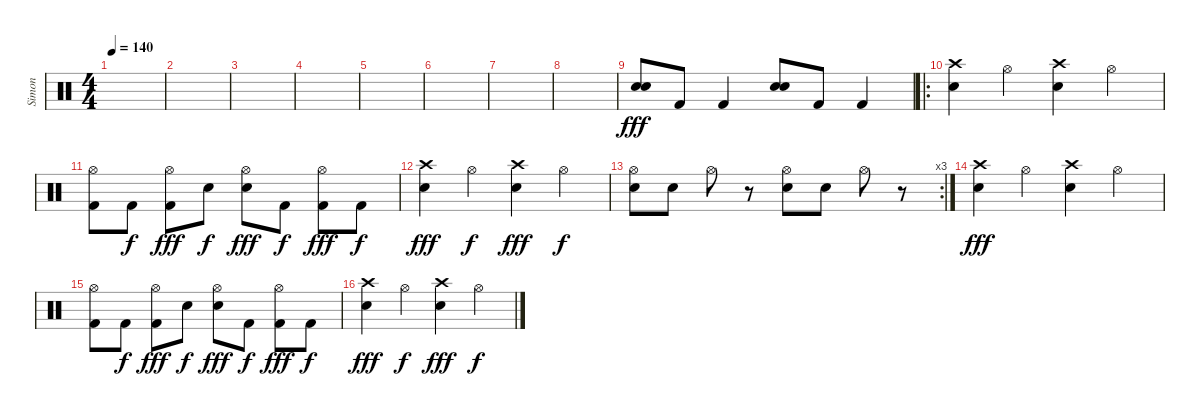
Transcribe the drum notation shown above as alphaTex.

\track ("Simon" "Simon") {instrument percussion}
\staff {score}
\articulation defaults
\ts (4 4)
\tempo 140
\clef neutral
\ks c
|
|
|
|
|
|
|
|
("Electric Snare (hit)" "Snare (hit) 2").8{dy fff} "Kick (hit) 2".8 "Kick (hit) 2".4 ("Electric Snare (hit)" "Snare (hit) 2").8 "Kick (hit) 2".8 "Kick (hit) 2".4 |
\ro
("Crash high (hit)" "Electric Snare (hit)").4 "Hi-Hat (open)".4 ("Crash high (hit)" "Electric Snare (hit)").4 "Hi-Hat (open)".4 |
("Kick (hit) 2" "Hi-Hat (open)").8 "Kick (hit) 2".8{dy f} ("Kick (hit) 2" "Hi-Hat (open)").8{dy fff} "Electric Snare (hit)".8{dy f} ("Electric Snare (hit)" "Hi-Hat (open)").8{dy fff} "Kick (hit) 2".8{dy f} ("Kick (hit) 2" "Hi-Hat (open)").8{dy fff} "Kick (hit) 2".8{dy f} |
("Crash high (hit)" "Electric Snare (hit)").4{dy fff} "Hi-Hat (open)".4{dy f} ("Crash high (hit)" "Electric Snare (hit)").4{dy fff} "Hi-Hat (open)".4{dy f} |
\rc 3
("Electric Snare (hit)" "Hi-Hat (open)").8 "Electric Snare (hit)".8 "Hi-Hat (open)".8 r.8 ("Electric Snare (hit)" "Hi-Hat (open)").8 "Electric Snare (hit)".8 "Hi-Hat (open)".8 r.8 |
("Crash high (hit)" "Electric Snare (hit)").4{dy fff} "Hi-Hat (open)".4 ("Crash high (hit)" "Electric Snare (hit)").4 "Hi-Hat (open)".4 |
("Kick (hit) 2" "Hi-Hat (open)").8 "Kick (hit) 2".8{dy f} ("Kick (hit) 2" "Hi-Hat (open)").8{dy fff} "Electric Snare (hit)".8{dy f} ("Electric Snare (hit)" "Hi-Hat (open)").8{dy fff} "Kick (hit) 2".8{dy f} ("Kick (hit) 2" "Hi-Hat (open)").8{dy fff} "Kick (hit) 2".8{dy f} |
("Crash high (hit)" "Electric Snare (hit)").4{dy fff} "Hi-Hat (open)".4{dy f} ("Crash high (hit)" "Electric Snare (hit)").4{dy fff} "Hi-Hat (open)".4{dy f}
